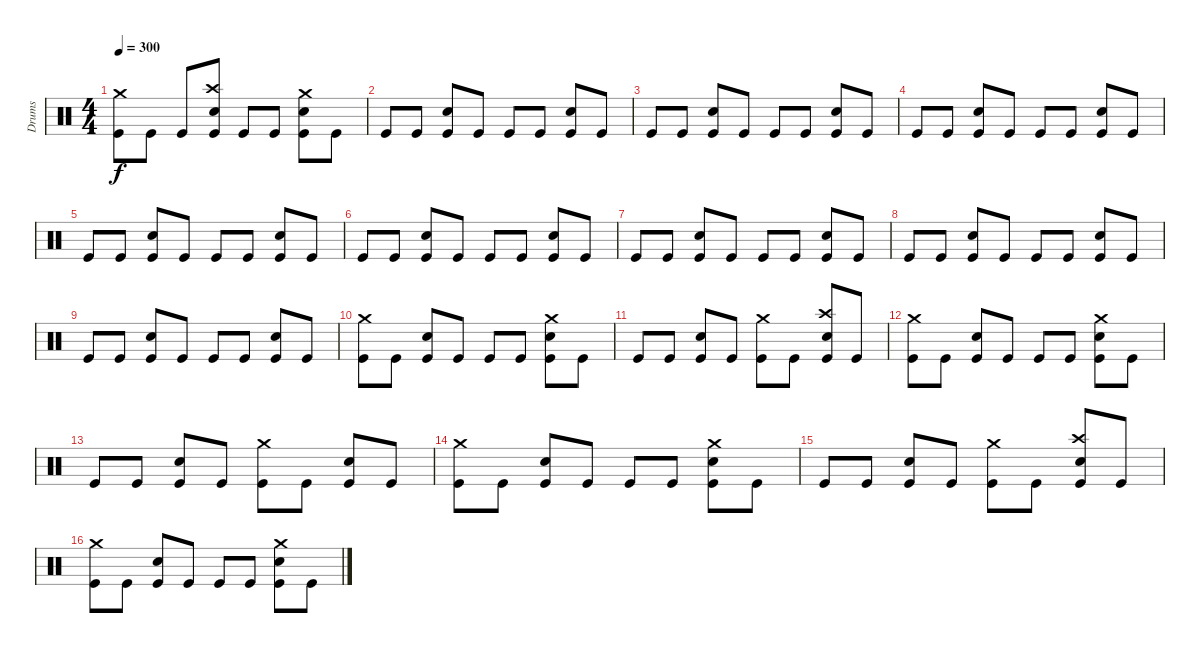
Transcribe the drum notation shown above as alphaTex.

\track ("Drums" "Drums") {instrument percussion}
\staff {score}
\articulation defaults
\ts (4 4)
\tempo 300
\clef neutral
\ks c
("Crash medium (hit)" "Kick (hit)").8{dy f} "Kick (hit)".8 "Kick (hit)".8 ("Crash high (hit)" "Electric Snare (hit)" "Kick (hit)").8 "Kick (hit)".8 "Kick (hit)".8 ("Crash medium (hit)" "Electric Snare (hit)" "Kick (hit)").8 "Kick (hit)".8 |
"Kick (hit)".8 "Kick (hit)".8 ("Electric Snare (hit)" "Kick (hit)").8 "Kick (hit)".8 "Kick (hit)".8 "Kick (hit)".8 ("Electric Snare (hit)" "Kick (hit)").8 "Kick (hit)".8 |
"Kick (hit)".8 "Kick (hit)".8 ("Electric Snare (hit)" "Kick (hit)").8 "Kick (hit)".8 "Kick (hit)".8 "Kick (hit)".8 ("Electric Snare (hit)" "Kick (hit)").8 "Kick (hit)".8 |
"Kick (hit)".8 "Kick (hit)".8 ("Electric Snare (hit)" "Kick (hit)").8 "Kick (hit)".8 "Kick (hit)".8 "Kick (hit)".8 ("Electric Snare (hit)" "Kick (hit)").8 "Kick (hit)".8 |
"Kick (hit)".8 "Kick (hit)".8 ("Electric Snare (hit)" "Kick (hit)").8 "Kick (hit)".8 "Kick (hit)".8 "Kick (hit)".8 ("Electric Snare (hit)" "Kick (hit)").8 "Kick (hit)".8 |
"Kick (hit)".8 "Kick (hit)".8 ("Electric Snare (hit)" "Kick (hit)").8 "Kick (hit)".8 "Kick (hit)".8 "Kick (hit)".8 ("Electric Snare (hit)" "Kick (hit)").8 "Kick (hit)".8 |
"Kick (hit)".8 "Kick (hit)".8 ("Electric Snare (hit)" "Kick (hit)").8 "Kick (hit)".8 "Kick (hit)".8 "Kick (hit)".8 ("Electric Snare (hit)" "Kick (hit)").8 "Kick (hit)".8 |
"Kick (hit)".8 "Kick (hit)".8 ("Electric Snare (hit)" "Kick (hit)").8 "Kick (hit)".8 "Kick (hit)".8 "Kick (hit)".8 ("Electric Snare (hit)" "Kick (hit)").8 "Kick (hit)".8 |
"Kick (hit)".8 "Kick (hit)".8 ("Electric Snare (hit)" "Kick (hit)").8 "Kick (hit)".8 "Kick (hit)".8 "Kick (hit)".8 ("Electric Snare (hit)" "Kick (hit)").8 "Kick (hit)".8 |
("Crash medium (hit)" "Kick (hit)").8 "Kick (hit)".8 ("Electric Snare (hit)" "Kick (hit)").8 "Kick (hit)".8 "Kick (hit)".8 "Kick (hit)".8 ("Crash medium (hit)" "Electric Snare (hit)" "Kick (hit)").8 "Kick (hit)".8 |
"Kick (hit)".8 "Kick (hit)".8 ("Electric Snare (hit)" "Kick (hit)").8 "Kick (hit)".8 ("Crash medium (hit)" "Kick (hit)").8 "Kick (hit)".8 ("Crash high (hit)" "Electric Snare (hit)" "Kick (hit)").8 "Kick (hit)".8 |
("Crash medium (hit)" "Kick (hit)").8 "Kick (hit)".8 ("Electric Snare (hit)" "Kick (hit)").8 "Kick (hit)".8 "Kick (hit)".8 "Kick (hit)".8 ("Crash medium (hit)" "Electric Snare (hit)" "Kick (hit)").8 "Kick (hit)".8 |
"Kick (hit)".8 "Kick (hit)".8 ("Electric Snare (hit)" "Kick (hit)").8 "Kick (hit)".8 ("Crash medium (hit)" "Kick (hit)").8 "Kick (hit)".8 ("Electric Snare (hit)" "Kick (hit)").8 "Kick (hit)".8 |
("Crash medium (hit)" "Kick (hit)").8 "Kick (hit)".8 ("Electric Snare (hit)" "Kick (hit)").8 "Kick (hit)".8 "Kick (hit)".8 "Kick (hit)".8 ("Crash medium (hit)" "Electric Snare (hit)" "Kick (hit)").8 "Kick (hit)".8 |
"Kick (hit)".8 "Kick (hit)".8 ("Electric Snare (hit)" "Kick (hit)").8 "Kick (hit)".8 ("Crash medium (hit)" "Kick (hit)").8 "Kick (hit)".8 ("Crash high (hit)" "Electric Snare (hit)" "Kick (hit)").8 "Kick (hit)".8 |
("Crash medium (hit)" "Kick (hit)").8 "Kick (hit)".8 ("Electric Snare (hit)" "Kick (hit)").8 "Kick (hit)".8 "Kick (hit)".8 "Kick (hit)".8 ("Crash medium (hit)" "Electric Snare (hit)" "Kick (hit)").8 "Kick (hit)".8
